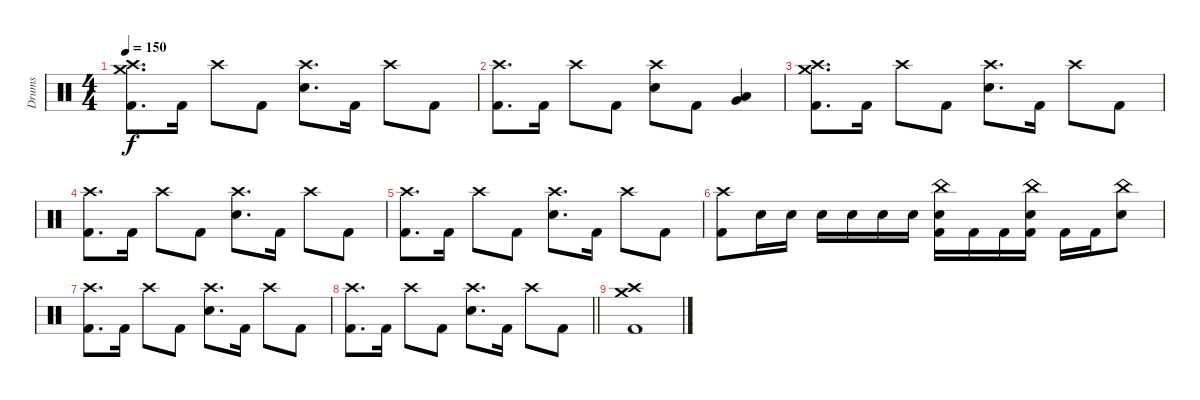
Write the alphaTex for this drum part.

\track ("Drums" "Drums") {instrument percussion}
\staff {score}
\articulation defaults
\ts (4 4)
\section ("" "")
\tempo 150
\clef neutral
\ks c
("Crash high (hit)" "Crash medium (hit)" "Kick (hit) 2").8{d dy f} "Kick (hit) 2".16 "Crash high (hit)".8 "Kick (hit) 2".8 ("Crash high (hit)" "Snare (hit) 2").8{d} "Kick (hit) 2".16 "Crash high (hit)".8 "Kick (hit) 2".8 |
("Crash high (hit)" "Kick (hit) 2").8{d} "Kick (hit) 2".16 "Crash high (hit)".8 "Kick (hit) 2".8 ("Crash high (hit)" "Snare (hit) 2").8 "Kick (hit) 2".8 ("Low Tom (hit)" "Very Low Tom (hit)").4 |
("Crash high (hit)" "Crash medium (hit)" "Kick (hit) 2").8{d} "Kick (hit) 2".16 "Crash high (hit)".8 "Kick (hit) 2".8 ("Crash high (hit)" "Snare (hit) 2").8{d} "Kick (hit) 2".16 "Crash high (hit)".8 "Kick (hit) 2".8 |
("Crash high (hit)" "Kick (hit) 2").8{d} "Kick (hit) 2".16 "Crash high (hit)".8 "Kick (hit) 2".8 ("Crash high (hit)" "Snare (hit) 2").8{d} "Kick (hit) 2".16 "Crash high (hit)".8 "Kick (hit) 2".8 |
("Crash high (hit)" "Kick (hit) 2").8{d} "Kick (hit) 2".16 "Crash high (hit)".8 "Kick (hit) 2".8 ("Crash high (hit)" "Snare (hit) 2").8{d} "Kick (hit) 2".16 "Crash high (hit)".8 "Kick (hit) 2".8 |
("Crash high (hit)" "Kick (hit) 2").8 "Snare (hit) 2".16 "Snare (hit) 2".16 "Snare (hit) 2".16 "Snare (hit) 2".16 "Snare (hit) 2".16 "Snare (hit) 2".16 ("China (hit)" "Snare (hit) 2" "Kick (hit) 2").16 "Kick (hit) 2".16 "Kick (hit) 2".16 ("China (hit)" "Snare (hit) 2" "Kick (hit) 2").16 "Kick (hit) 2".16 "Kick (hit) 2".16 ("China (hit)" "Snare (hit) 2").8 |
("Crash high (hit)" "Kick (hit) 2").8{d} "Kick (hit) 2".16 "Crash high (hit)".8 "Kick (hit) 2".8 ("Crash high (hit)" "Snare (hit) 2").8{d} "Kick (hit) 2".16 "Crash high (hit)".8 "Kick (hit) 2".8 |
\barLineRight lightlight
("Crash high (hit)" "Kick (hit) 2").8{d} "Kick (hit) 2".16 "Crash high (hit)".8 "Kick (hit) 2".8 ("Crash high (hit)" "Snare (hit) 2").8{d} "Kick (hit) 2".16 "Crash high (hit)".8 "Kick (hit) 2".8 |
\section ("" "")
("Crash high (hit)" "Crash medium (hit)" "Kick (hit) 2").1{volume 0}
